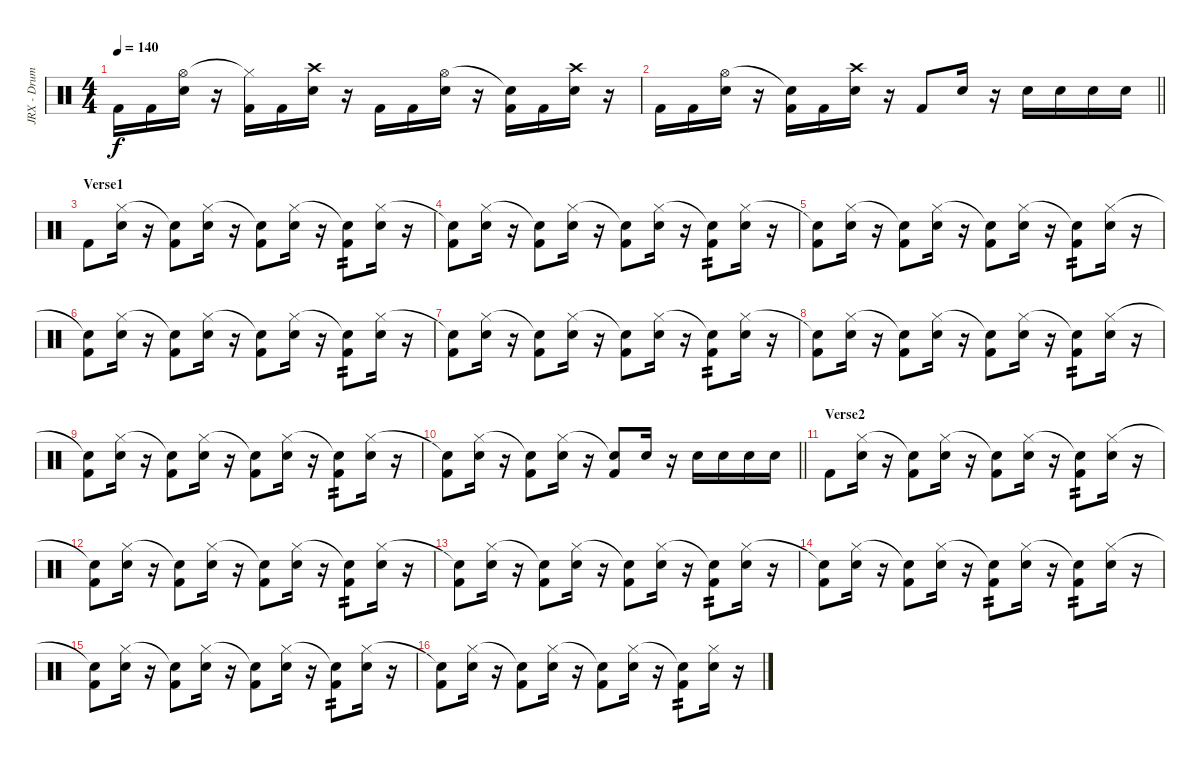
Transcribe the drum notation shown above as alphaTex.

\track ("JRX - Drum" "JRX - Drum") {instrument percussion}
\staff {score}
\articulation defaults
\ts (4 4)
\tempo 140
\clef neutral
\ks c "Kick (hit) 2".16{dy f} "Kick (hit) 2".16
("Hi-Hat (open)" "Electric Snare (hit)").16 r.16 ("Hi-Hat (closed)"{t} "Kick (hit) 2").16 "Kick (hit) 2".16 ("Electric Snare (hit)" "Crash high (hit)").16 r.16 "Kick (hit) 2".16 "Kick (hit) 2".16 ("Hi-Hat (open)" "Electric Snare (hit)").16 r.16 ("Snare (hit)"{t} "Kick (hit) 2").16 "Kick (hit) 2".16 ("Electric Snare (hit)" "Crash high (hit)").16 r.16 |
\barLineRight lightlight "Kick (hit) 2".16 "Kick (hit) 2".16
("Hi-Hat (open)" "Electric Snare (hit)").16 r.16 ("Snare (hit)"{t} "Kick (hit) 2").16 "Kick (hit) 2".16 ("Electric Snare (hit)" "Crash high (hit)").16 r.16 "Kick (hit) 2".8 "Electric Snare (hit)".16 r.16 "Electric Snare (hit)".16 "Electric Snare (hit)".16 "Electric Snare (hit)".16 "Electric Snare (hit)".16 |
\section ("" "Verse1")
"Kick (hit) 2".8 ("Hi-Hat (closed)" "Electric Snare (hit)").16 r.16 ("Snare (hit)"{t} "Kick (hit) 2").8 ("Hi-Hat (closed)" "Electric Snare (hit)").16 r.16 ("Snare (hit)"{t} "Kick (hit) 2").8 ("Hi-Hat (closed)" "Electric Snare (hit)").16 r.16 ("Snare (hit)"{t} "Kick (hit) 2").8{tp 2} ("Hi-Hat (closed)" "Electric Snare (hit)").16 r.16 |
("Snare (hit)"{t} "Kick (hit) 2").8 ("Hi-Hat (closed)" "Electric Snare (hit)").16 r.16 ("Snare (hit)"{t} "Kick (hit) 2").8 ("Hi-Hat (closed)" "Electric Snare (hit)").16 r.16 ("Snare (hit)"{t} "Kick (hit) 2").8 ("Hi-Hat (closed)" "Electric Snare (hit)").16 r.16 ("Snare (hit)"{t} "Kick (hit) 2").8{tp 2} ("Hi-Hat (closed)" "Electric Snare (hit)").16 r.16 |
("Snare (hit)"{t} "Kick (hit) 2").8 ("Hi-Hat (closed)" "Electric Snare (hit)").16 r.16 ("Snare (hit)"{t} "Kick (hit) 2").8 ("Hi-Hat (closed)" "Electric Snare (hit)").16 r.16 ("Snare (hit)"{t} "Kick (hit) 2").8 ("Hi-Hat (closed)" "Electric Snare (hit)").16 r.16 ("Snare (hit)"{t} "Kick (hit) 2").8{tp 2} ("Hi-Hat (closed)" "Electric Snare (hit)").16 r.16 |
("Snare (hit)"{t} "Kick (hit) 2").8 ("Hi-Hat (closed)" "Electric Snare (hit)").16 r.16 ("Snare (hit)"{t} "Kick (hit) 2").8 ("Hi-Hat (closed)" "Electric Snare (hit)").16 r.16 ("Snare (hit)"{t} "Kick (hit) 2").8 ("Hi-Hat (closed)" "Electric Snare (hit)").16 r.16 ("Snare (hit)"{t} "Kick (hit) 2").8{tp 2} ("Hi-Hat (closed)" "Electric Snare (hit)").16 r.16 |
("Snare (hit)"{t} "Kick (hit) 2").8 ("Hi-Hat (closed)" "Electric Snare (hit)").16 r.16 ("Snare (hit)"{t} "Kick (hit) 2").8 ("Hi-Hat (closed)" "Electric Snare (hit)").16 r.16 ("Snare (hit)"{t} "Kick (hit) 2").8 ("Hi-Hat (closed)" "Electric Snare (hit)").16 r.16 ("Snare (hit)"{t} "Kick (hit) 2").8{tp 2} ("Hi-Hat (closed)" "Electric Snare (hit)").16 r.16 |
("Snare (hit)"{t} "Kick (hit) 2").8 ("Hi-Hat (closed)" "Electric Snare (hit)").16 r.16 ("Snare (hit)"{t} "Kick (hit) 2").8 ("Hi-Hat (closed)" "Electric Snare (hit)").16 r.16 ("Snare (hit)"{t} "Kick (hit) 2").8 ("Hi-Hat (closed)" "Electric Snare (hit)").16 r.16 ("Snare (hit)"{t} "Kick (hit) 2").8{tp 2} ("Hi-Hat (closed)" "Electric Snare (hit)").16 r.16 |
("Snare (hit)"{t} "Kick (hit) 2").8 ("Hi-Hat (closed)" "Electric Snare (hit)").16 r.16 ("Snare (hit)"{t} "Kick (hit) 2").8 ("Hi-Hat (closed)" "Electric Snare (hit)").16 r.16 ("Snare (hit)"{t} "Kick (hit) 2").8 ("Hi-Hat (closed)" "Electric Snare (hit)").16 r.16 ("Snare (hit)"{t} "Kick (hit) 2").8{tp 2} ("Hi-Hat (closed)" "Electric Snare (hit)").16 r.16 |
\barLineRight lightlight
("Snare (hit)"{t} "Kick (hit) 2").8 ("Hi-Hat (closed)" "Electric Snare (hit)").16 r.16 ("Snare (hit)"{t} "Kick (hit) 2").8 ("Hi-Hat (closed)" "Electric Snare (hit)").16 r.16 ("Snare (hit)"{t} "Kick (hit) 2").8 "Electric Snare (hit)".16 r.16 "Electric Snare (hit)".16 "Electric Snare (hit)".16 "Electric Snare (hit)".16 "Electric Snare (hit)".16 |
\section ("" "Verse2")
"Kick (hit) 2".8 ("Hi-Hat (closed)" "Electric Snare (hit)").16 r.16 ("Snare (hit)"{t} "Kick (hit) 2").8 ("Hi-Hat (closed)" "Electric Snare (hit)").16 r.16 ("Snare (hit)"{t} "Kick (hit) 2").8 ("Hi-Hat (closed)" "Electric Snare (hit)").16 r.16 ("Snare (hit)"{t} "Kick (hit) 2").8{tp 2} ("Hi-Hat (closed)" "Electric Snare (hit)").16 r.16 |
("Snare (hit)"{t} "Kick (hit) 2").8 ("Hi-Hat (closed)" "Electric Snare (hit)").16 r.16 ("Snare (hit)"{t} "Kick (hit) 2").8 ("Hi-Hat (closed)" "Electric Snare (hit)").16 r.16 ("Snare (hit)"{t} "Kick (hit) 2").8 ("Hi-Hat (closed)" "Electric Snare (hit)").16 r.16 ("Snare (hit)"{t} "Kick (hit) 2").8{tp 2} ("Hi-Hat (closed)" "Electric Snare (hit)").16 r.16 |
("Snare (hit)"{t} "Kick (hit) 2").8 ("Hi-Hat (closed)" "Electric Snare (hit)").16 r.16 ("Snare (hit)"{t} "Kick (hit) 2").8 ("Hi-Hat (closed)" "Electric Snare (hit)").16 r.16 ("Snare (hit)"{t} "Kick (hit) 2").8 ("Hi-Hat (closed)" "Electric Snare (hit)").16 r.16 ("Snare (hit)"{t} "Kick (hit) 2").8{tp 2} ("Hi-Hat (closed)" "Electric Snare (hit)").16 r.16 |
("Snare (hit)"{t} "Kick (hit) 2").8 ("Hi-Hat (closed)" "Electric Snare (hit)").16 r.16 ("Snare (hit)"{t} "Kick (hit) 2").8 ("Hi-Hat (closed)" "Electric Snare (hit)").16 r.16 ("Snare (hit)"{t} "Kick (hit) 2").8{tp 2} ("Hi-Hat (closed)" "Electric Snare (hit)").16 r.16 ("Snare (hit)"{t} "Kick (hit) 2").8{tp 2} ("Hi-Hat (closed)" "Electric Snare (hit)").16 r.16 |
("Snare (hit)"{t} "Kick (hit) 2").8 ("Hi-Hat (closed)" "Electric Snare (hit)").16 r.16 ("Snare (hit)"{t} "Kick (hit) 2").8 ("Hi-Hat (closed)" "Electric Snare (hit)").16 r.16 ("Snare (hit)"{t} "Kick (hit) 2").8 ("Hi-Hat (closed)" "Electric Snare (hit)").16 r.16 ("Snare (hit)"{t} "Kick (hit) 2").8{tp 2} ("Hi-Hat (closed)" "Electric Snare (hit)").16 r.16 |
("Snare (hit)"{t} "Kick (hit) 2").8 ("Hi-Hat (closed)" "Electric Snare (hit)").16 r.16 ("Snare (hit)"{t} "Kick (hit) 2").8 ("Hi-Hat (closed)" "Electric Snare (hit)").16 r.16 ("Snare (hit)"{t} "Kick (hit) 2").8 ("Hi-Hat (closed)" "Electric Snare (hit)").16 r.16 ("Snare (hit)"{t} "Kick (hit) 2").8{tp 2} ("Hi-Hat (closed)" "Electric Snare (hit)").16 r.16
